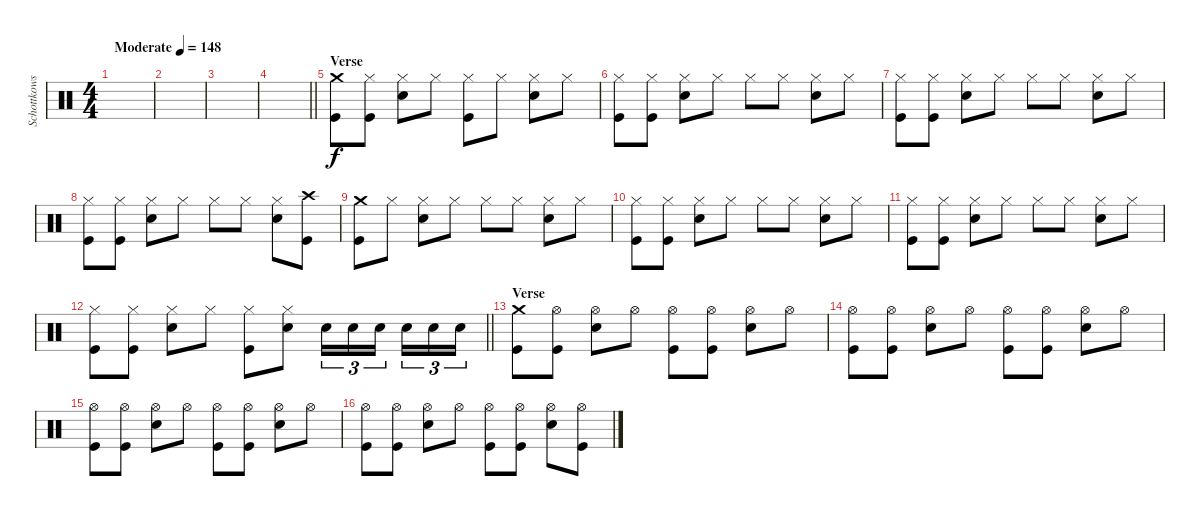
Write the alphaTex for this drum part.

\track ("Schottkowski" "Schottkows") {instrument percussion}
\staff {score}
\articulation defaults
\ts (4 4)
\tempo (148 "Moderate")
\clef neutral
\ks c
|
|
|
\barLineRight lightlight
|
\section ("" "Verse")
("Crash medium (hit)" "Kick (hit)").8 ("Hi-Hat (closed)" "Kick (hit)").8 ("Hi-Hat (closed)" "Electric Snare (hit)").8 "Hi-Hat (closed)".8 ("Hi-Hat (closed)" "Kick (hit)").8 "Hi-Hat (closed)".8 ("Hi-Hat (closed)" "Electric Snare (hit)").8 "Hi-Hat (closed)".8 |
("Hi-Hat (closed)" "Kick (hit)").8 ("Hi-Hat (closed)" "Kick (hit)").8 ("Hi-Hat (closed)" "Electric Snare (hit)").8 "Hi-Hat (closed)".8 "Hi-Hat (closed)".8 "Hi-Hat (closed)".8 ("Hi-Hat (closed)" "Electric Snare (hit)").8 "Hi-Hat (closed)".8 |
("Hi-Hat (closed)" "Kick (hit)").8 ("Hi-Hat (closed)" "Kick (hit)").8 ("Hi-Hat (closed)" "Electric Snare (hit)").8 "Hi-Hat (closed)".8 "Hi-Hat (closed)".8 "Hi-Hat (closed)".8 ("Hi-Hat (closed)" "Electric Snare (hit)").8 "Hi-Hat (closed)".8 |
("Hi-Hat (closed)" "Kick (hit)").8 ("Hi-Hat (closed)" "Kick (hit)").8 ("Hi-Hat (closed)" "Electric Snare (hit)").8 "Hi-Hat (closed)".8 "Hi-Hat (closed)".8 "Hi-Hat (closed)".8 ("Hi-Hat (closed)" "Electric Snare (hit)").8 ("Crash high (hit)" "Kick (hit)").8 |
("Crash medium (hit)" "Kick (hit)").8 "Hi-Hat (closed)".8 ("Hi-Hat (closed)" "Electric Snare (hit)").8 "Hi-Hat (closed)".8 "Hi-Hat (closed)".8 "Hi-Hat (closed)".8 ("Hi-Hat (closed)" "Electric Snare (hit)").8 "Hi-Hat (closed)".8 |
("Hi-Hat (closed)" "Kick (hit)").8 ("Hi-Hat (closed)" "Kick (hit)").8 ("Hi-Hat (closed)" "Electric Snare (hit)").8 "Hi-Hat (closed)".8 "Hi-Hat (closed)".8 "Hi-Hat (closed)".8 ("Hi-Hat (closed)" "Electric Snare (hit)").8 "Hi-Hat (closed)".8 |
("Hi-Hat (closed)" "Kick (hit)").8 ("Hi-Hat (closed)" "Kick (hit)").8 ("Hi-Hat (closed)" "Electric Snare (hit)").8 "Hi-Hat (closed)".8 "Hi-Hat (closed)".8 "Hi-Hat (closed)".8 ("Hi-Hat (closed)" "Electric Snare (hit)").8 "Hi-Hat (closed)".8 |
\barLineRight lightlight
("Hi-Hat (closed)" "Kick (hit)").8 ("Hi-Hat (closed)" "Kick (hit)").8 ("Hi-Hat (closed)" "Electric Snare (hit)").8 "Hi-Hat (closed)".8 ("Hi-Hat (closed)" "Kick (hit)").8 ("Hi-Hat (closed)" "Electric Snare (hit)").8 "Electric Snare (hit)".16{tu (3 2)} "Electric Snare (hit)".16{tu (3 2)} "Electric Snare (hit)".16{tu (3 2) beam splitsecondary} "Electric Snare (hit)".16{tu (3 2)} "Electric Snare (hit)".16{tu (3 2)} "Electric Snare (hit)".16{tu (3 2)} |
\section ("" "Verse")
("Crash medium (hit)" "Kick (hit)").8 ("Hi-Hat (open)" "Kick (hit)").8 ("Hi-Hat (open)" "Electric Snare (hit)").8 "Hi-Hat (open)".8 ("Hi-Hat (open)" "Kick (hit)").8 ("Hi-Hat (open)" "Kick (hit)").8 ("Hi-Hat (open)" "Electric Snare (hit)").8 "Hi-Hat (open)".8 |
("Hi-Hat (open)" "Kick (hit)").8 ("Hi-Hat (open)" "Kick (hit)").8 ("Hi-Hat (open)" "Electric Snare (hit)").8 "Hi-Hat (open)".8 ("Hi-Hat (open)" "Kick (hit)").8 ("Hi-Hat (open)" "Kick (hit)").8 ("Hi-Hat (open)" "Electric Snare (hit)").8 "Hi-Hat (open)".8 |
("Hi-Hat (open)" "Kick (hit)").8 ("Hi-Hat (open)" "Kick (hit)").8 ("Hi-Hat (open)" "Electric Snare (hit)").8 "Hi-Hat (open)".8 ("Hi-Hat (open)" "Kick (hit)").8 ("Hi-Hat (open)" "Kick (hit)").8 ("Hi-Hat (open)" "Electric Snare (hit)").8 "Hi-Hat (open)".8 |
("Hi-Hat (open)" "Kick (hit)").8 ("Hi-Hat (open)" "Kick (hit)").8 ("Hi-Hat (open)" "Electric Snare (hit)").8 "Hi-Hat (open)".8 ("Hi-Hat (open)" "Kick (hit)").8 ("Hi-Hat (open)" "Kick (hit)").8 ("Hi-Hat (open)" "Electric Snare (hit)").8 ("Hi-Hat (open)" "Kick (hit)").8
